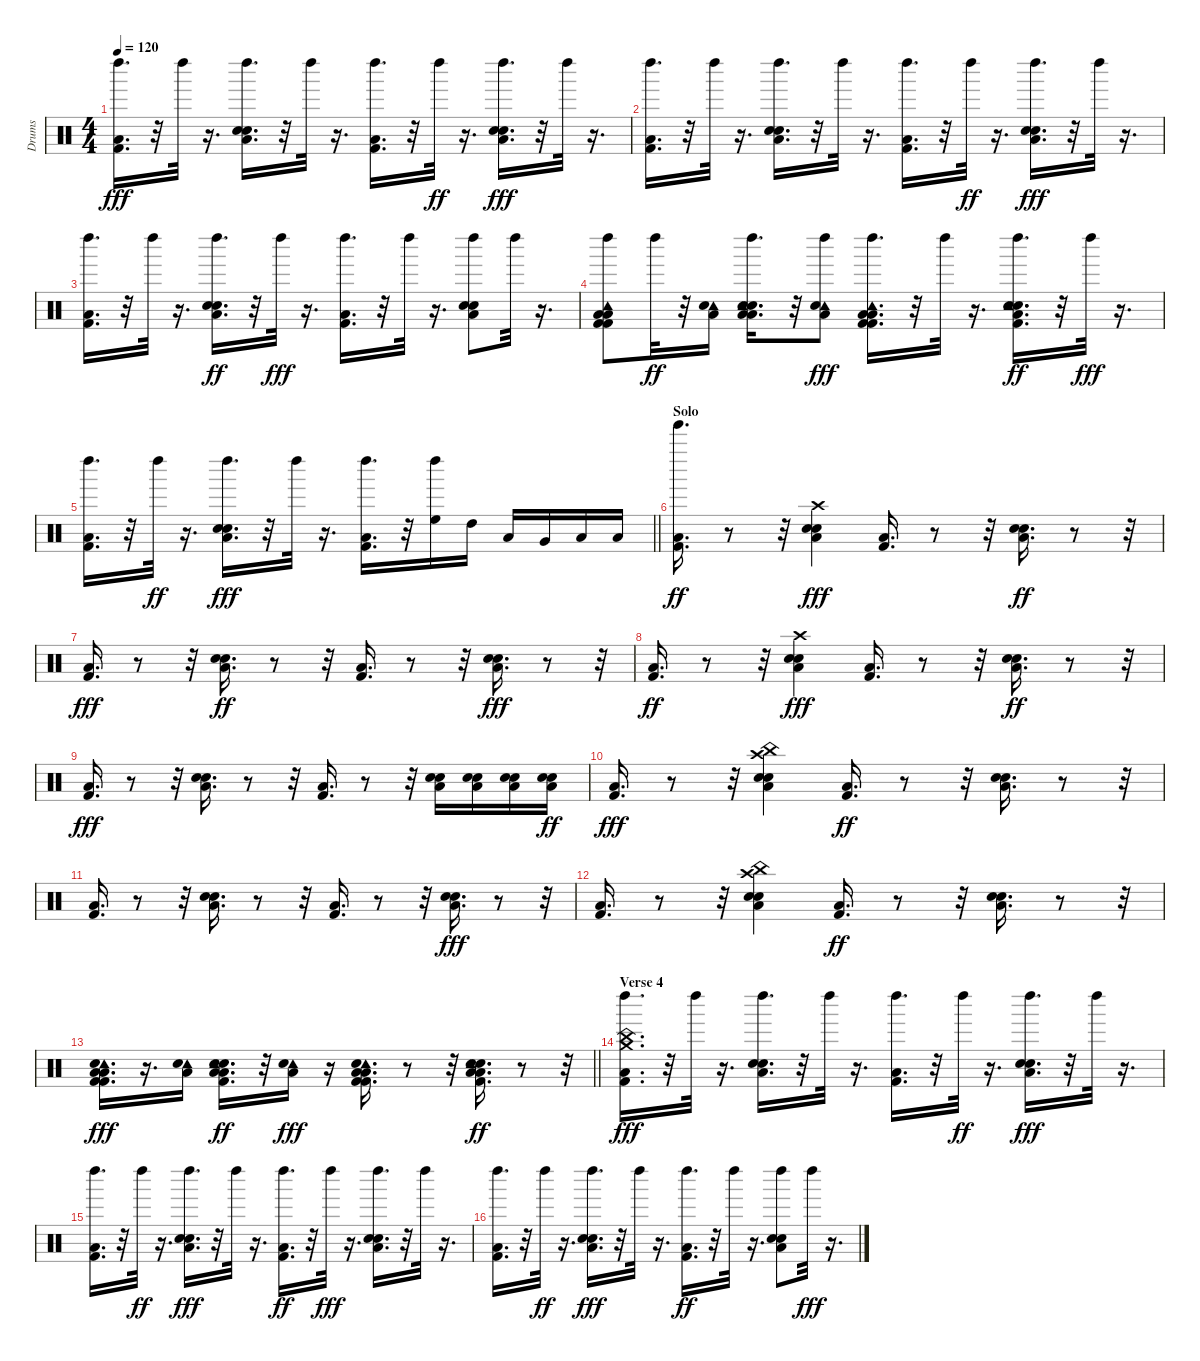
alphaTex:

\track ("Drums" "Drums") {instrument percussion}
\staff {score}
\articulation defaults
\ts (4 4)
\tempo 120
\clef neutral
\ks c
("Left Maraca (hit)" "Low Floor Tom (hit)" "Kick (hit) 2").16{d dy fff} r.32 "Left Maraca (hit)".32 r.16{d} ("Left Maraca (hit)" "Electric Snare (hit)" "Low Floor Tom (hit)" "Snare (hit) 2").16{d} r.32 "Left Maraca (hit)".32 r.16{d} ("Left Maraca (hit)" "Low Floor Tom (hit)" "Kick (hit) 2").16{d} r.32 "Left Maraca (hit)".32{dy ff} r.16{d} ("Left Maraca (hit)" "Electric Snare (hit)" "Low Floor Tom (hit)" "Snare (hit) 2").16{d dy fff} r.32 "Left Maraca (hit)".32 r.16{d} |
("Left Maraca (hit)" "Low Floor Tom (hit)" "Kick (hit) 2").16{d} r.32 "Left Maraca (hit)".32 r.16{d} ("Left Maraca (hit)" "Electric Snare (hit)" "Low Floor Tom (hit)" "Snare (hit) 2").16{d} r.32 "Left Maraca (hit)".32 r.16{d} ("Left Maraca (hit)" "Low Floor Tom (hit)" "Kick (hit) 2").16{d} r.32 "Left Maraca (hit)".32{dy ff} r.16{d} ("Left Maraca (hit)" "Electric Snare (hit)" "Low Floor Tom (hit)" "Snare (hit) 2").16{d dy fff} r.32 "Left Maraca (hit)".32 r.16{d} |
("Left Maraca (hit)" "Low Floor Tom (hit)" "Kick (hit) 2").16{d} r.32 "Left Maraca (hit)".32 r.16{d} ("Left Maraca (hit)" "Electric Snare (hit)" "Low Floor Tom (hit)" "Snare (hit) 2").16{d dy ff} r.32 "Left Maraca (hit)".32{dy fff} r.16{d} ("Left Maraca (hit)" "Low Floor Tom (hit)" "Kick (hit) 2").16{d} r.32 "Left Maraca (hit)".32 r.16{d} ("Left Maraca (hit)" "Electric Snare (hit)" "Low Floor Tom (hit)" "Snare (hit) 2").8 "Left Maraca (hit)".32 r.16{d} |
("Left Maraca (hit)" "Low Floor Tom (hit)" "Kick (hit) 2" "Tambourine (hit)" "Low Floor Tom (hit)" "Kick (hit) 2").8 "Left Maraca (hit)".32{dy ff} r.32 ("Tambourine (hit)" "Low Floor Tom (hit)" "Snare (hit) 2").16 ("Left Maraca (hit)" "Electric Snare (hit)" "Low Floor Tom (hit)" "Snare (hit) 2" "Tambourine (hit)" "Low Floor Tom (hit)").16{d} r.32 ("Left Maraca (hit)" "Tambourine (hit)" "Low Floor Tom (hit)" "Snare (hit) 2").8{dy fff} ("Left Maraca (hit)" "Low Floor Tom (hit)" "Kick (hit) 2" "Tambourine (hit)" "Low Floor Tom (hit)" "Kick (hit) 2").16{d} r.32 "Left Maraca (hit)".32 r.16{d} ("Left Maraca (hit)" "Electric Snare (hit)" "Low Floor Tom (hit)" "Snare (hit) 2" "Tambourine (hit)" "Kick (hit) 2").16{d dy ff} r.32 "Left Maraca (hit)".32{dy fff} r.16{d} |
\barLineRight lightlight
("Left Maraca (hit)" "Low Floor Tom (hit)" "Kick (hit) 2").16{d} r.32 "Left Maraca (hit)".32{dy ff} r.16{d} ("Left Maraca (hit)" "Electric Snare (hit)" "Low Floor Tom (hit)" "Snare (hit) 2").16{d dy fff} r.32 "Left Maraca (hit)".32 r.16{d} ("Left Maraca (hit)" "Low Floor Tom (hit)" "Kick (hit) 2").16{d} r.32 ("High Floor Tom (hit)" "Left Maraca (hit)").16 "High Tom (hit)".16 "Low Tom (hit)".16 "Very Low Tom (hit)".16 "Low Floor Tom (hit)".16 "Low Floor Tom (hit)".16 |
\section ("" "Solo")
("Tinkle Bell (hit)" "Low Floor Tom (hit)" "Kick (hit) 2").16{d dy ff} r.8 r.32 ("Crash high (hit)" "Electric Snare (hit)" "Low Floor Tom (hit)" "Snare (hit) 2").4{dy fff} ("Low Floor Tom (hit)" "Kick (hit) 2").16{d} r.8 r.32 ("Electric Snare (hit)" "Low Floor Tom (hit)" "Snare (hit) 2").16{d dy ff} r.8 r.32 |
("Low Floor Tom (hit)" "Kick (hit) 2").16{d dy fff} r.8 r.32 ("Electric Snare (hit)" "Low Floor Tom (hit)" "Snare (hit) 2").16{d dy ff} r.8 r.32 ("Low Floor Tom (hit)" "Kick (hit) 2").16{d} r.8 r.32 ("Electric Snare (hit)" "Low Floor Tom (hit)" "Snare (hit) 2").16{d dy fff} r.8 r.32 |
("Low Floor Tom (hit)" "Kick (hit) 2").16{d dy ff} r.8 r.32 ("Crash high (hit)" "Electric Snare (hit)" "Low Floor Tom (hit)" "Snare (hit) 2").4{dy fff} ("Low Floor Tom (hit)" "Kick (hit) 2").16{d} r.8 r.32 ("Electric Snare (hit)" "Low Floor Tom (hit)" "Snare (hit) 2").16{d dy ff} r.8 r.32 |
("Low Floor Tom (hit)" "Kick (hit) 2").16{d dy fff} r.8 r.32 ("Electric Snare (hit)" "Low Floor Tom (hit)" "Snare (hit) 2").16{d} r.8 r.32 ("Low Floor Tom (hit)" "Kick (hit) 2").16{d} r.8 r.32 ("Electric Snare (hit)" "Low Floor Tom (hit)" "Snare (hit) 2").16 ("Electric Snare (hit)" "Snare (hit) 2" "Low Floor Tom (hit)").16 ("Electric Snare (hit)" "Low Floor Tom (hit)" "Snare (hit) 2").16 ("Low Floor Tom (hit)" "Electric Snare (hit)" "Snare (hit) 2").16{dy ff} |
("Low Floor Tom (hit)" "Kick (hit) 2").16{d dy fff} r.8 r.32 ("Crash high (hit)" "China (hit)" "Electric Snare (hit)" "Low Floor Tom (hit)" "Snare (hit) 2").4 ("Low Floor Tom (hit)" "Kick (hit) 2").16{d dy ff} r.8 r.32 ("Electric Snare (hit)" "Low Floor Tom (hit)" "Snare (hit) 2").16{d} r.8 r.32 |
("Low Floor Tom (hit)" "Kick (hit) 2").16{d} r.8 r.32 ("Electric Snare (hit)" "Low Floor Tom (hit)" "Snare (hit) 2").16{d} r.8 r.32 ("Low Floor Tom (hit)" "Kick (hit) 2").16{d} r.8 r.32 ("Electric Snare (hit)" "Low Floor Tom (hit)" "Snare (hit) 2").16{d dy fff} r.8 r.32 |
("Low Floor Tom (hit)" "Kick (hit) 2").16{d} r.8 r.32 ("Crash high (hit)" "China (hit)" "Electric Snare (hit)" "Low Floor Tom (hit)" "Snare (hit) 2").4 ("Low Floor Tom (hit)" "Kick (hit) 2").16{d dy ff} r.8 r.32 ("Electric Snare (hit)" "Low Floor Tom (hit)" "Snare (hit) 2").16{d} r.8 r.32 |
\barLineRight lightlight
("Low Floor Tom (hit)" "Kick (hit) 2" "Tambourine (hit)" "Low Floor Tom (hit)" "Kick (hit) 2" "Snare (hit) 2").16{d dy fff} r.16{d} ("Tambourine (hit)" "Low Floor Tom (hit)" "Snare (hit) 2").16 ("Electric Snare (hit)" "Low Floor Tom (hit)" "Snare (hit) 2" "Tambourine (hit)" "Low Floor Tom (hit)" "Kick (hit) 2").16{d dy ff} r.32 ("Tambourine (hit)" "Low Floor Tom (hit)" "Snare (hit) 2").16{dy fff} r.16 ("Low Floor Tom (hit)" "Kick (hit) 2" "Tambourine (hit)" "Low Floor Tom (hit)" "Kick (hit) 2" "Snare (hit) 2").16{d} r.8 r.32 ("Electric Snare (hit)" "Low Floor Tom (hit)" "Snare (hit) 2" "Tambourine (hit)" "Kick (hit) 2" "Low Floor Tom (hit)").16{d dy ff} r.8 r.32 |
\section ("" "Verse 4")
("Crash medium (hit)" "China (hit)" "Left Maraca (hit)" "Low Floor Tom (hit)" "Kick (hit) 2").16{d dy fff} r.32 "Left Maraca (hit)".32 r.16{d} ("Left Maraca (hit)" "Electric Snare (hit)" "Low Floor Tom (hit)" "Snare (hit) 2").16{d} r.32 "Left Maraca (hit)".32 r.16{d} ("Left Maraca (hit)" "Low Floor Tom (hit)" "Kick (hit) 2").16{d} r.32 "Left Maraca (hit)".32{dy ff} r.16{d} ("Left Maraca (hit)" "Electric Snare (hit)" "Low Floor Tom (hit)" "Snare (hit) 2").16{d dy fff} r.32 "Left Maraca (hit)".32 r.16{d} |
("Left Maraca (hit)" "Low Floor Tom (hit)" "Kick (hit) 2").16{d} r.32 "Left Maraca (hit)".32{dy ff} r.16{d} ("Left Maraca (hit)" "Electric Snare (hit)" "Low Floor Tom (hit)" "Snare (hit) 2").16{d dy fff} r.32 "Left Maraca (hit)".32 r.16{d} ("Left Maraca (hit)" "Low Floor Tom (hit)" "Kick (hit) 2").16{d dy ff} r.32 "Left Maraca (hit)".32{dy fff} r.16{d} ("Left Maraca (hit)" "Electric Snare (hit)" "Low Floor Tom (hit)" "Snare (hit) 2").16{d} r.32 "Left Maraca (hit)".32 r.16{d} |
("Left Maraca (hit)" "Low Floor Tom (hit)" "Kick (hit) 2").16{d} r.32 "Left Maraca (hit)".32{dy ff} r.16{d} ("Left Maraca (hit)" "Electric Snare (hit)" "Low Floor Tom (hit)" "Snare (hit) 2").16{d dy fff} r.32 "Left Maraca (hit)".32 r.16{d} ("Left Maraca (hit)" "Low Floor Tom (hit)" "Kick (hit) 2").16{d dy ff} r.32 "Left Maraca (hit)".32 r.16{d} ("Left Maraca (hit)" "Electric Snare (hit)" "Low Floor Tom (hit)" "Snare (hit) 2").8 "Left Maraca (hit)".32{dy fff} r.16{d}
